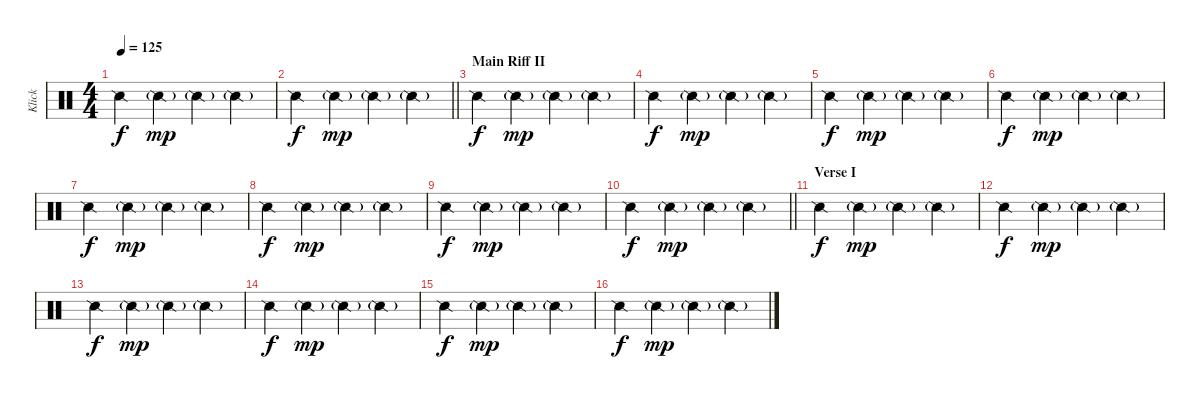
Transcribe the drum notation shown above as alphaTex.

\track ("Klick" "Klick") {instrument percussion}
\staff {score}
\articulation defaults
\ts (4 4)
\tempo 125
\clef neutral
\ks c "Snare (side stick) 2".4{dy f} "Snare (side stick) 2"{g}.4{dy mp} "Snare (side stick) 2"{g}.4 "Snare (side stick) 2"{g}.4
|
\barLineRight lightlight "Snare (side stick) 2".4{dy f} "Snare (side stick) 2"{g}.4{dy mp} "Snare (side stick) 2"{g}.4 "Snare (side stick) 2"{g}.4
|
\section ("" "Main Riff II")
"Snare (side stick) 2".4{dy f} "Snare (side stick) 2"{g}.4{dy mp} "Snare (side stick) 2"{g}.4 "Snare (side stick) 2"{g}.4 |
"Snare (side stick) 2".4{dy f} "Snare (side stick) 2"{g}.4{dy mp} "Snare (side stick) 2"{g}.4 "Snare (side stick) 2"{g}.4 |
"Snare (side stick) 2".4{dy f} "Snare (side stick) 2"{g}.4{dy mp} "Snare (side stick) 2"{g}.4 "Snare (side stick) 2"{g}.4 |
"Snare (side stick) 2".4{dy f} "Snare (side stick) 2"{g}.4{dy mp} "Snare (side stick) 2"{g}.4 "Snare (side stick) 2"{g}.4 |
"Snare (side stick) 2".4{dy f} "Snare (side stick) 2"{g}.4{dy mp} "Snare (side stick) 2"{g}.4 "Snare (side stick) 2"{g}.4 |
"Snare (side stick) 2".4{dy f} "Snare (side stick) 2"{g}.4{dy mp} "Snare (side stick) 2"{g}.4 "Snare (side stick) 2"{g}.4 |
"Snare (side stick) 2".4{dy f} "Snare (side stick) 2"{g}.4{dy mp} "Snare (side stick) 2"{g}.4 "Snare (side stick) 2"{g}.4 |
\barLineRight lightlight "Snare (side stick) 2".4{dy f} "Snare (side stick) 2"{g}.4{dy mp} "Snare (side stick) 2"{g}.4 "Snare (side stick) 2"{g}.4
|
\section ("" "Verse I")
"Snare (side stick) 2".4{dy f} "Snare (side stick) 2"{g}.4{dy mp} "Snare (side stick) 2"{g}.4 "Snare (side stick) 2"{g}.4 |
"Snare (side stick) 2".4{dy f} "Snare (side stick) 2"{g}.4{dy mp} "Snare (side stick) 2"{g}.4 "Snare (side stick) 2"{g}.4 |
"Snare (side stick) 2".4{dy f} "Snare (side stick) 2"{g}.4{dy mp} "Snare (side stick) 2"{g}.4 "Snare (side stick) 2"{g}.4 |
"Snare (side stick) 2".4{dy f} "Snare (side stick) 2"{g}.4{dy mp} "Snare (side stick) 2"{g}.4 "Snare (side stick) 2"{g}.4 |
"Snare (side stick) 2".4{dy f} "Snare (side stick) 2"{g}.4{dy mp} "Snare (side stick) 2"{g}.4 "Snare (side stick) 2"{g}.4 |
"Snare (side stick) 2".4{dy f} "Snare (side stick) 2"{g}.4{dy mp} "Snare (side stick) 2"{g}.4 "Snare (side stick) 2"{g}.4
